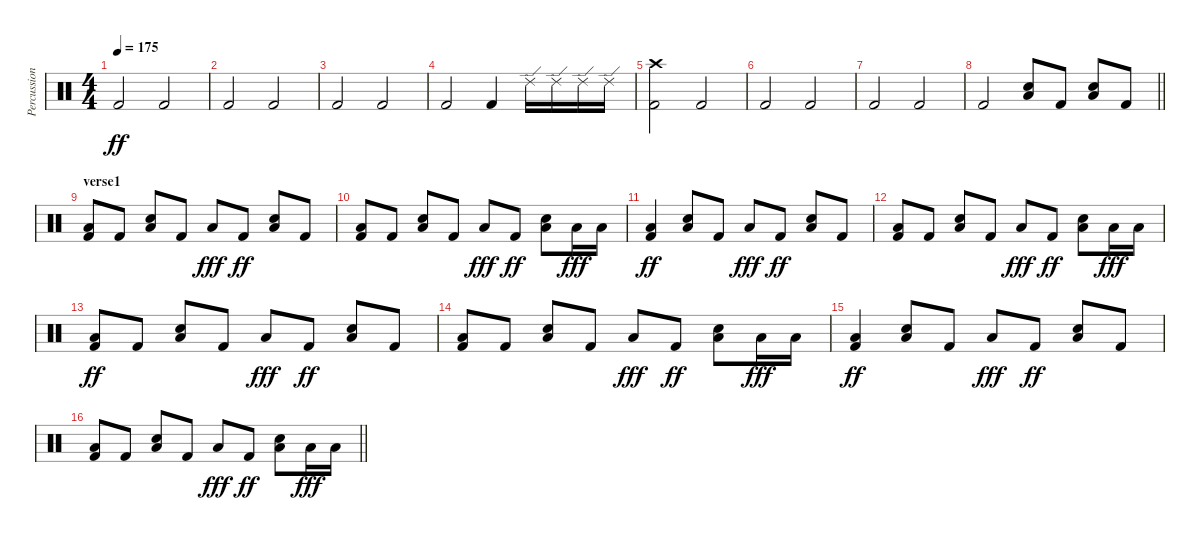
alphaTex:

\track ("Percussion" "Percussion") {instrument percussion}
\staff {score}
\articulation defaults
\ts (4 4)
\tempo 175
\clef neutral
\ks c "Kick (hit) 2".2{dy ff} "Kick (hit) 2".2
|
"Kick (hit) 2".2 "Kick (hit) 2".2 |
"Kick (hit) 2".2 "Kick (hit) 2".2 |
"Kick (hit) 2".2 "Kick (hit) 2".4 "Ride (edge) 2".16 "Ride (edge) 2".16 "Ride (edge) 2".16 "Ride (edge) 2".16 |
("Crash high (hit)" "Kick (hit) 2").2 "Kick (hit) 2".2 |
"Kick (hit) 2".2 "Kick (hit) 2".2 |
"Kick (hit) 2".2 "Kick (hit) 2".2 |
\barLineRight lightlight "Kick (hit) 2".2
("Low Tom (hit)" "Snare (hit) 2").8 "Kick (hit) 2".8 ("Low Tom (hit)" "Snare (hit) 2").8 "Kick (hit) 2".8 |
\section ("" "verse1")
("Low Tom (hit)" "Kick (hit) 2").8 "Kick (hit) 2".8 ("Low Tom (hit)" "Snare (hit) 2").8 "Kick (hit) 2".8 "Low Tom (hit)".8{dy fff} "Kick (hit) 2".8{dy ff} ("Low Tom (hit)" "Snare (hit) 2").8 "Kick (hit) 2".8 |
("Low Tom (hit)" "Kick (hit) 2").8 "Kick (hit) 2".8 ("Low Tom (hit)" "Snare (hit) 2").8 "Kick (hit) 2".8 "Low Tom (hit)".8{dy fff} "Kick (hit) 2".8{dy ff} ("Low Tom (hit)" "Snare (hit) 2").8 "Low Tom (hit)".16{dy fff} "Low Tom (hit)".16 |
("Low Tom (hit)" "Kick (hit) 2").4{dy ff} ("Low Tom (hit)" "Snare (hit) 2").8 "Kick (hit) 2".8 "Low Tom (hit)".8{dy fff} "Kick (hit) 2".8{dy ff} ("Low Tom (hit)" "Snare (hit) 2").8 "Kick (hit) 2".8 |
("Low Tom (hit)" "Kick (hit) 2").8 "Kick (hit) 2".8 ("Low Tom (hit)" "Snare (hit) 2").8 "Kick (hit) 2".8 "Low Tom (hit)".8{dy fff} "Kick (hit) 2".8{dy ff} ("Low Tom (hit)" "Snare (hit) 2").8 "Low Tom (hit)".16{dy fff} "Low Tom (hit)".16 |
("Low Tom (hit)" "Kick (hit) 2").8{dy ff} "Kick (hit) 2".8 ("Low Tom (hit)" "Snare (hit) 2").8 "Kick (hit) 2".8 "Low Tom (hit)".8{dy fff} "Kick (hit) 2".8{dy ff} ("Low Tom (hit)" "Snare (hit) 2").8 "Kick (hit) 2".8 |
("Low Tom (hit)" "Kick (hit) 2").8 "Kick (hit) 2".8 ("Low Tom (hit)" "Snare (hit) 2").8 "Kick (hit) 2".8 "Low Tom (hit)".8{dy fff} "Kick (hit) 2".8{dy ff} ("Low Tom (hit)" "Snare (hit) 2").8 "Low Tom (hit)".16{dy fff} "Low Tom (hit)".16 |
("Low Tom (hit)" "Kick (hit) 2").4{dy ff} ("Low Tom (hit)" "Snare (hit) 2").8 "Kick (hit) 2".8 "Low Tom (hit)".8{dy fff} "Kick (hit) 2".8{dy ff} ("Low Tom (hit)" "Snare (hit) 2").8 "Kick (hit) 2".8 |
\barLineRight lightlight
("Low Tom (hit)" "Kick (hit) 2").8 "Kick (hit) 2".8 ("Low Tom (hit)" "Snare (hit) 2").8 "Kick (hit) 2".8 "Low Tom (hit)".8{dy fff} "Kick (hit) 2".8{dy ff} ("Low Tom (hit)" "Snare (hit) 2").8 "Low Tom (hit)".16{dy fff} "Low Tom (hit)".16
